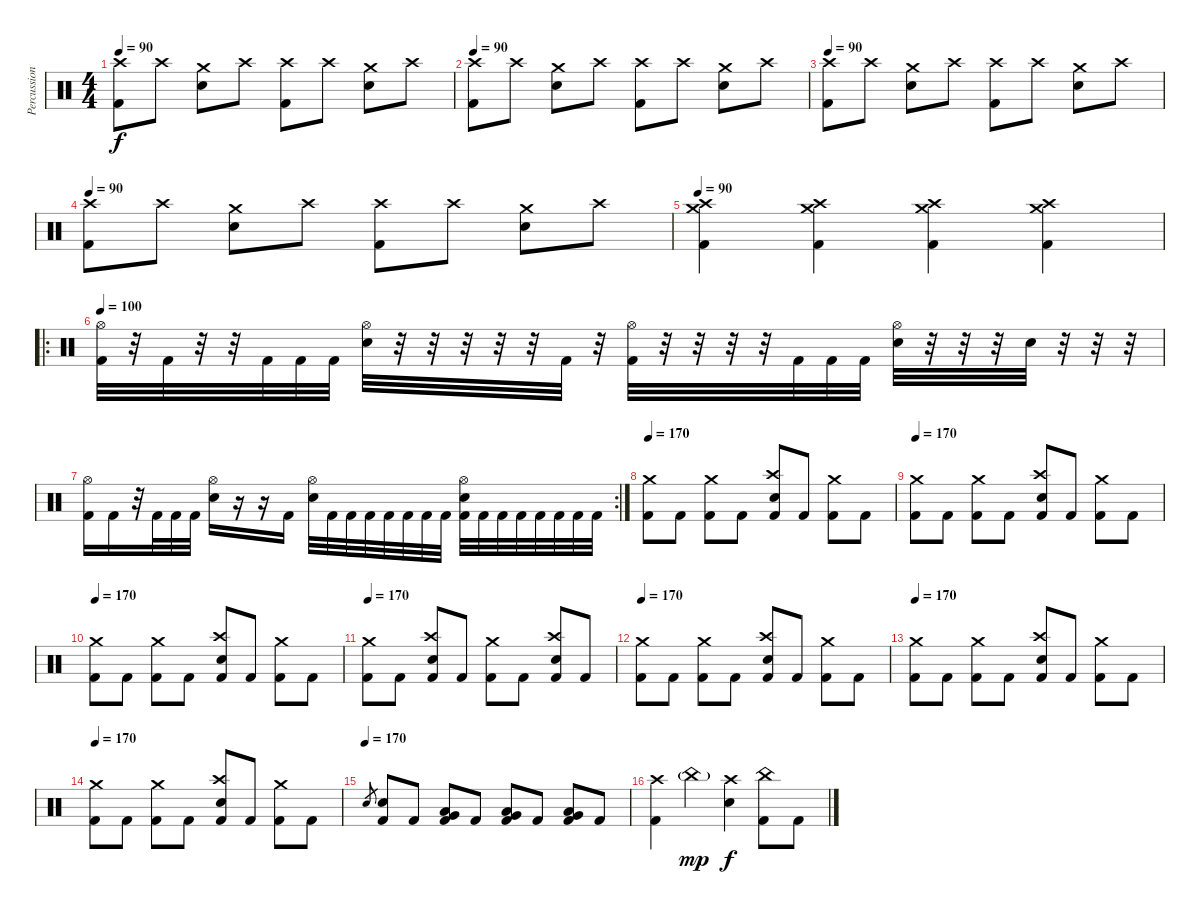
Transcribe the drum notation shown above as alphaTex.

\track ("Percussions" "Percussion") {instrument percussion}
\staff {score}
\articulation defaults
\ts (4 4)
\tempo 90
\clef neutral
\ks c
("Kick (hit) 2" "Crash high (hit)").8{dy f} "Crash high (hit)".8 ("Electric Snare (hit)" "Crash medium (hit)").8 "Crash high (hit)".8 ("Kick (hit) 2" "Crash high (hit)").8 "Crash high (hit)".8 ("Electric Snare (hit)" "Crash medium (hit)").8 "Crash high (hit)".8 |
\tempo 90
("Kick (hit) 2" "Crash high (hit)").8 "Crash high (hit)".8 ("Electric Snare (hit)" "Crash medium (hit)").8 "Crash high (hit)".8 ("Kick (hit) 2" "Crash high (hit)").8 "Crash high (hit)".8 ("Electric Snare (hit)" "Crash medium (hit)").8 "Crash high (hit)".8 |
\tempo 90
("Kick (hit) 2" "Crash high (hit)").8 "Crash high (hit)".8 ("Electric Snare (hit)" "Crash medium (hit)").8 "Crash high (hit)".8 ("Kick (hit) 2" "Crash high (hit)").8 "Crash high (hit)".8 ("Electric Snare (hit)" "Crash medium (hit)").8 "Crash high (hit)".8 |
\tempo 90
("Kick (hit) 2" "Crash high (hit)").8 "Crash high (hit)".8 ("Electric Snare (hit)" "Crash medium (hit)").8 "Crash high (hit)".8 ("Kick (hit) 2" "Crash high (hit)").8 "Crash high (hit)".8 ("Electric Snare (hit)" "Crash medium (hit)").8 "Crash high (hit)".8 |
\tempo 90
("Kick (hit) 2" "Crash medium (hit)" "Crash high (hit)").4 ("Kick (hit) 2" "Crash medium (hit)" "Crash high (hit)").4 ("Kick (hit) 2" "Crash medium (hit)" "Crash high (hit)").4 ("Kick (hit) 2" "Crash medium (hit)" "Crash high (hit)").4 |
\ro
\tempo 100
("Kick (hit) 2" "Hi-Hat (open)").32 r.32 "Kick (hit) 2".32 r.32 r.32 "Kick (hit) 2".32 "Kick (hit) 2".32 "Kick (hit) 2".32 ("Electric Snare (hit)" "Hi-Hat (open)").32 r.32 r.32 r.32 r.32 r.32 "Kick (hit) 2".32 r.32 ("Kick (hit) 2" "Hi-Hat (open)").32 r.32 r.32 r.32 r.32 "Kick (hit) 2".32 "Kick (hit) 2".32 "Kick (hit) 2".32 ("Electric Snare (hit)" "Hi-Hat (open)").32 r.32 r.32 r.32 "Electric Snare (hit)".32 r.32 r.32 r.32 |
\rc 2
("Kick (hit) 2" "Hi-Hat (open)").16 "Kick (hit) 2".16 r.32 "Kick (hit) 2".32 "Kick (hit) 2".32 "Kick (hit) 2".32 ("Electric Snare (hit)" "Hi-Hat (open)").16 r.16 r.16 "Kick (hit) 2".16 ("Electric Snare (hit)" "Hi-Hat (open)").32 "Kick (hit) 2".32 "Kick (hit) 2".32 "Kick (hit) 2".32 "Kick (hit) 2".32 "Kick (hit) 2".32 "Kick (hit) 2".32 "Kick (hit) 2".32 ("Kick (hit) 2" "Electric Snare (hit)" "Hi-Hat (open)").32 "Kick (hit) 2".32 "Kick (hit) 2".32 "Kick (hit) 2".32 "Kick (hit) 2".32 "Kick (hit) 2".32 "Kick (hit) 2".32 "Kick (hit) 2".32 |
\tempo 170
("Kick (hit) 2" "Crash medium (hit)").8 "Kick (hit) 2".8 ("Kick (hit) 2" "Crash medium (hit)").8 "Kick (hit) 2".8 ("Kick (hit) 2" "Electric Snare (hit)" "Crash high (hit)").8 "Kick (hit) 2".8 ("Kick (hit) 2" "Crash medium (hit)").8 "Kick (hit) 2".8 |
\tempo 170
("Kick (hit) 2" "Crash medium (hit)").8 "Kick (hit) 2".8 ("Kick (hit) 2" "Crash medium (hit)").8 "Kick (hit) 2".8 ("Kick (hit) 2" "Electric Snare (hit)" "Crash high (hit)").8 "Kick (hit) 2".8 ("Kick (hit) 2" "Crash medium (hit)").8 "Kick (hit) 2".8 |
\tempo 170
("Kick (hit) 2" "Crash medium (hit)").8 "Kick (hit) 2".8 ("Kick (hit) 2" "Crash medium (hit)").8 "Kick (hit) 2".8 ("Kick (hit) 2" "Electric Snare (hit)" "Crash high (hit)").8 "Kick (hit) 2".8 ("Kick (hit) 2" "Crash medium (hit)").8 "Kick (hit) 2".8 |
\tempo 170
("Kick (hit) 2" "Crash medium (hit)").8 "Kick (hit) 2".8 ("Kick (hit) 2" "Electric Snare (hit)" "Crash high (hit)").8 "Kick (hit) 2".8 ("Kick (hit) 2" "Crash medium (hit)").8 "Kick (hit) 2".8 ("Kick (hit) 2" "Electric Snare (hit)" "Crash high (hit)").8 "Kick (hit) 2".8 |
\tempo 170
("Kick (hit) 2" "Crash medium (hit)").8 "Kick (hit) 2".8 ("Kick (hit) 2" "Crash medium (hit)").8 "Kick (hit) 2".8 ("Kick (hit) 2" "Electric Snare (hit)" "Crash high (hit)").8 "Kick (hit) 2".8 ("Kick (hit) 2" "Crash medium (hit)").8 "Kick (hit) 2".8 |
\tempo 170
("Kick (hit) 2" "Crash medium (hit)").8 "Kick (hit) 2".8 ("Kick (hit) 2" "Crash medium (hit)").8 "Kick (hit) 2".8 ("Kick (hit) 2" "Electric Snare (hit)" "Crash high (hit)").8 "Kick (hit) 2".8 ("Kick (hit) 2" "Crash medium (hit)").8 "Kick (hit) 2".8 |
\tempo 170
("Kick (hit) 2" "Crash medium (hit)").8 "Kick (hit) 2".8 ("Kick (hit) 2" "Crash medium (hit)").8 "Kick (hit) 2".8 ("Kick (hit) 2" "Electric Snare (hit)" "Crash high (hit)").8 "Kick (hit) 2".8 ("Kick (hit) 2" "Crash medium (hit)").8 "Kick (hit) 2".8 |
\tempo (170)
"Electric Snare (hit)".8{gr} ("Kick (hit) 2" "Electric Snare (hit)").8 "Kick (hit) 2".8 ("Kick (hit) 2" "Low Tom (hit)" "Very Low Tom (hit)").8 "Kick (hit) 2".8 ("Kick (hit) 2" "Very Low Tom (hit)" "Low Tom (hit)").8 "Kick (hit) 2".8 ("Kick (hit) 2" "Low Floor Tom (hit)" "Very Low Tom (hit)").8 "Kick (hit) 2".8 |
("Kick (hit) 2" "Crash high (hit)").4 "China (hit)"{g}.4{dy mp} ("Electric Snare (hit)" "Crash high (hit)").4{dy f} ("Kick (hit) 2" "China (hit)").8 "Kick (hit) 2".8
